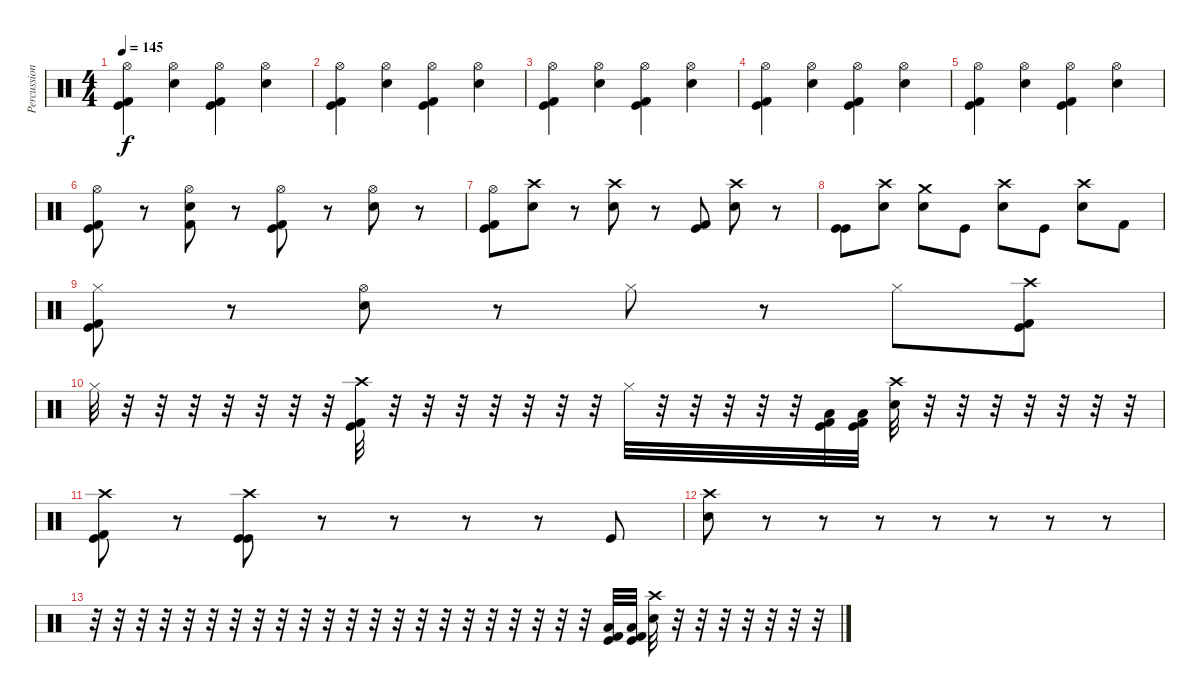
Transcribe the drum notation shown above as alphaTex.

\track ("Percussion" "Percussion") {instrument percussion}
\staff {score}
\articulation defaults
\ts (4 4)
\tempo 145
\clef neutral
\ks c
("Hi-Hat (open)" "Kick (hit)" "Kick (hit) 2").4{dy f} ("Hi-Hat (open)" "Snare (hit) 2").4 ("Hi-Hat (open)" "Kick (hit)" "Kick (hit) 2").4 ("Hi-Hat (open)" "Snare (hit) 2").4 |
("Hi-Hat (open)" "Kick (hit)" "Kick (hit) 2").4 ("Hi-Hat (open)" "Snare (hit) 2").4 ("Hi-Hat (open)" "Kick (hit)" "Kick (hit) 2").4 ("Hi-Hat (open)" "Snare (hit) 2").4 |
("Hi-Hat (open)" "Kick (hit)" "Kick (hit) 2").4 ("Hi-Hat (open)" "Snare (hit) 2").4 ("Hi-Hat (open)" "Kick (hit)" "Kick (hit) 2").4 ("Hi-Hat (open)" "Snare (hit) 2").4 |
("Hi-Hat (open)" "Kick (hit)" "Kick (hit) 2").4 ("Hi-Hat (open)" "Snare (hit) 2").4 ("Hi-Hat (open)" "Kick (hit)" "Kick (hit) 2").4 ("Hi-Hat (open)" "Snare (hit) 2").4 |
("Hi-Hat (open)" "Kick (hit)" "Kick (hit) 2").4 ("Hi-Hat (open)" "Snare (hit) 2").4 ("Hi-Hat (open)" "Kick (hit)" "Kick (hit) 2").4 ("Hi-Hat (open)" "Snare (hit) 2").4 |
("Hi-Hat (open)" "Kick (hit)" "Kick (hit) 2").8 r.8 ("Hi-Hat (open)" "Snare (hit) 2" "Kick (hit) 2").8 r.8 ("Hi-Hat (open)" "Kick (hit)" "Kick (hit) 2").8 r.8 ("Hi-Hat (open)" "Snare (hit) 2").8 r.8 |
("Hi-Hat (open)" "Kick (hit)" "Kick (hit) 2").8 ("Crash high (hit)" "Snare (hit) 2").8 r.8 ("Crash high (hit)" "Snare (hit) 2").8 r.8 ("Kick (hit)" "Kick (hit) 2").8 ("Snare (hit) 2" "Crash high (hit)").8 r.8 |
("Kick (hit)" "Kick (hit)").8 ("Crash high (hit)" "Snare (hit) 2").8 ("Crash medium (hit)" "Snare (hit) 2").8 "Kick (hit)".8 ("Crash high (hit)" "Snare (hit) 2").8 "Kick (hit)".8 ("Crash high (hit)" "Snare (hit) 2").8 "Kick (hit) 2".8 |
("Hi-Hat (closed)" "Kick (hit)" "Kick (hit) 2").8 r.8 ("Hi-Hat (open)" "Snare (hit) 2").8 r.8 "Hi-Hat (closed)".8 r.8 "Hi-Hat (closed)".8 ("Crash high (hit)" "Kick (hit)" "Kick (hit) 2").8 |
"Hi-Hat (closed)".32 r.32 r.32 r.32 r.32 r.32 r.32 r.32 ("Crash high (hit)" "Kick (hit)" "Kick (hit) 2").32 r.32 r.32 r.32 r.32 r.32 r.32 r.32 "Hi-Hat (closed)".32 r.32 r.32 r.32 r.32 r.32 ("Kick (hit) 2" "Kick (hit)" "Low Tom (hit)").32 ("Kick (hit) 2" "Kick (hit)" "Low Tom (hit)").32 ("Crash high (hit)" "Snare (hit) 2").32 r.32 r.32 r.32 r.32 r.32 r.32 r.32 |
("Crash high (hit)" "Kick (hit)" "Kick (hit) 2").8 r.8 ("Crash high (hit)" "Kick (hit)" "Kick (hit)").8 r.8 r.8 r.8 r.8 "Kick (hit)".8 |
("Crash high (hit)" "Snare (hit) 2").8 r.8 r.8 r.8 r.8 r.8 r.8 r.8 |
r.32 r.32 r.32 r.32 r.32 r.32 r.32 r.32 r.32 r.32 r.32 r.32 r.32 r.32 r.32 r.32 r.32 r.32 r.32 r.32 r.32 r.32 ("Kick (hit) 2" "Kick (hit)" "Low Tom (hit)").32 ("Kick (hit) 2" "Kick (hit)" "Low Tom (hit)").32 ("Crash high (hit)" "Snare (hit) 2").32 r.32 r.32 r.32 r.32 r.32 r.32 r.32
